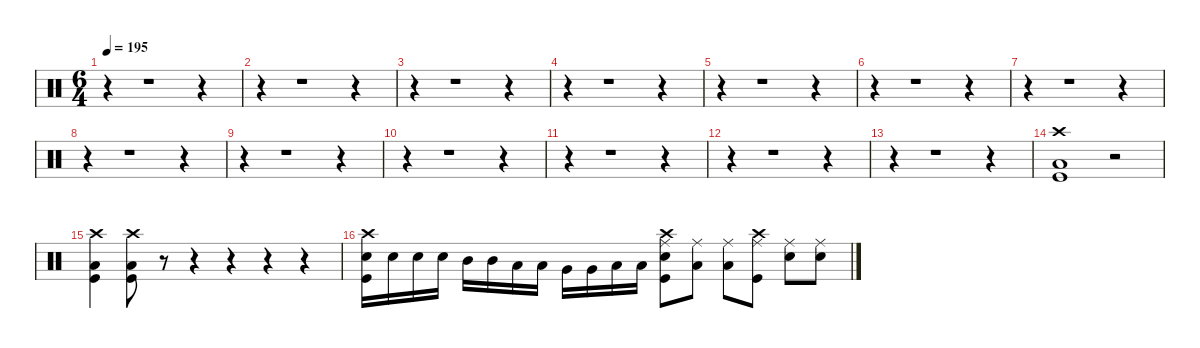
\defaultSystemsLayout 4
\hideDynamics
\bracketExtendMode nobrackets
\singleTrackTrackNamePolicy hidden
\multiTrackTrackNamePolicy hidden
\firstSystemTrackNameMode fullname
\firstSystemTrackNameOrientation horizontal
\otherSystemsTrackNameOrientation horizontal
\track ("Percussion" "drm.") {instrument percussion}
\staff {score}
\articulation defaults
\ts (6 4)
\tempo 195
\clef neutral
\ks c
r.4{dy f beam Down} r.1{beam Down} r.4{beam Down} |
r.4{beam Down} r.1{beam Down} r.4{beam Down} |
r.4{beam Down} r.1{beam Down} r.4{beam Down} |
r.4{beam Down} r.1{beam Down} r.4{beam Down} |
r.4{beam Down} r.1{beam Down} r.4{beam Down} |
r.4{beam Down} r.1{beam Down} r.4{beam Down} |
r.4{beam Down} r.1{beam Down} r.4{beam Down} |
r.4{beam Down} r.1{beam Down} r.4{beam Down} |
r.4{beam Down} r.1{beam Down} r.4{beam Down} |
r.4{beam Down} r.1{beam Down} r.4{beam Down} |
r.4{beam Down} r.1{beam Down} r.4{beam Down} |
r.4{beam Down} r.1{beam Down} r.4{beam Down} |
r.4{beam Down} r.1{beam Down} r.4{beam Down} |
("Crash high (hit)" "Low Floor Tom (hit)" "Kick (hit)").1{beam Down} r.2{beam Down} |
("Crash high (hit)" "Low Floor Tom (hit)" "Kick (hit)").4{beam Down} ("Crash high (hit)" "Low Floor Tom (hit)" "Kick (hit)").8{beam Down} r.8{beam Down} r.4{beam Down} r.4{beam Down} r.4{beam Down} r.4{beam Down} |
("Crash high (hit)" "Snare (hit) 2" "Kick (hit)").16{beam Down} "Snare (hit) 2".16{beam Down} "Snare (hit) 2".16{beam Down} "Snare (hit) 2".16{beam Down} "Mid Tom (hit)".16{beam Down} "Mid Tom (hit)".16{beam Down} "Low Tom (hit)".16{beam Down} "Low Tom (hit)".16{beam Down} "Very Low Tom (hit)".16{beam Down} "Very Low Tom (hit)".16{beam Down} "Low Floor Tom (hit)".16{beam Down} "Low Floor Tom (hit)".16{beam Down} ("Crash high (hit)" "Snare (hit) 2" "Ride (middle)" "Kick (hit)").8{beam Down} ("Low Floor Tom (hit)" "Ride (middle)").8{beam Down} ("Low Floor Tom (hit)" "Ride (middle)").8{beam Down} ("Crash high (hit)" "Ride (middle)" "Kick (hit)").8{beam Down} ("Snare (hit) 2" "Ride (middle)").8{beam Down} ("Snare (hit) 2" "Ride (middle)").8{beam Down}
